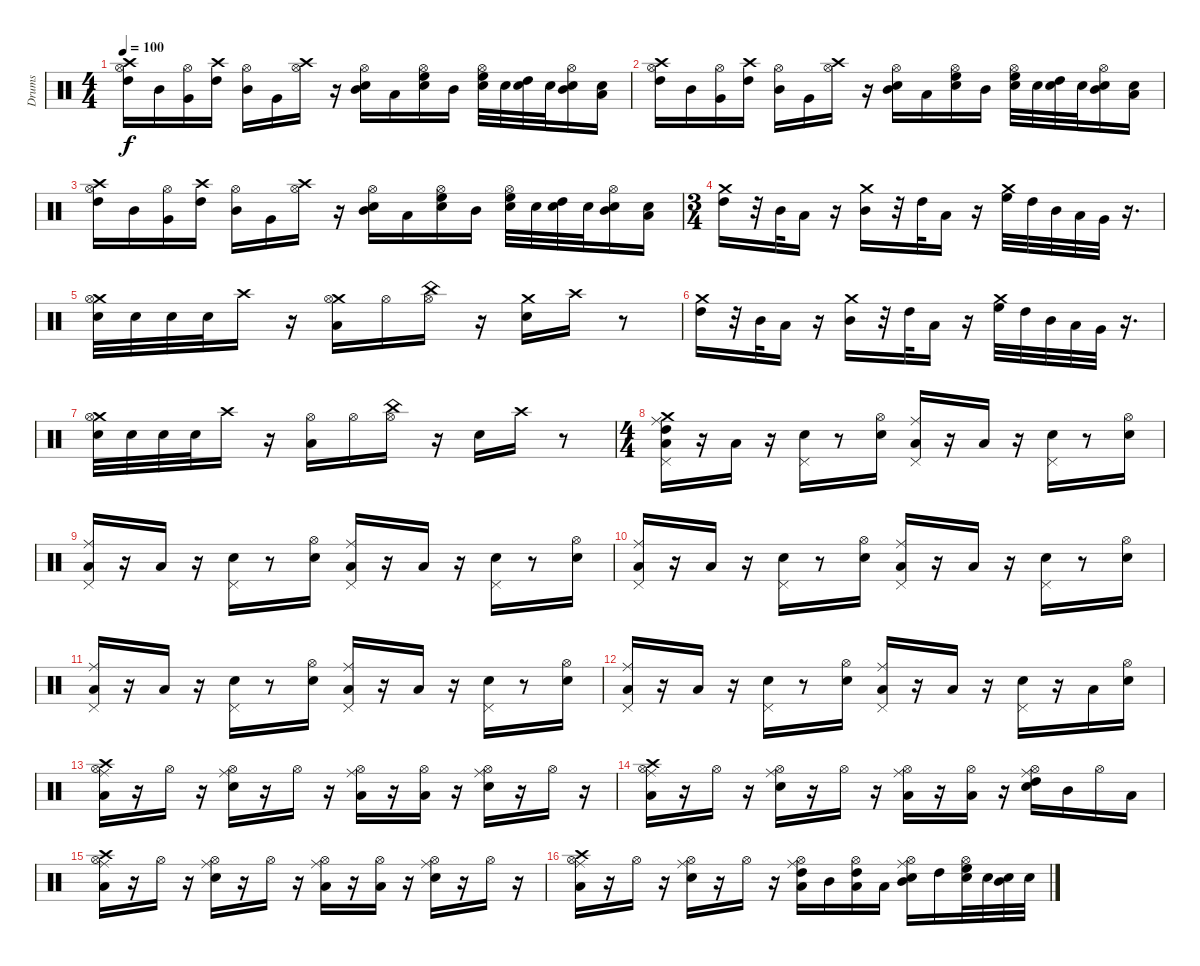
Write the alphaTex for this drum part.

\track ("Drums" "Drums") {instrument percussion}
\staff {score}
\articulation defaults
\ts (4 4)
\tempo 100
\clef neutral
\ks c
("Hi-Hat (open)" "Crash high (hit)" "High Tom (hit)").16{dy f} "Mid Tom (hit)".16 ("Hi-Hat (open)" "Very Low Tom (hit)").16 ("Crash high (hit)" "High Tom (hit)").16 ("Hi-Hat (open)" "Mid Tom (hit)").16 "Very Low Tom (hit)".16 ("Hi-Hat (open)" "Crash high (hit)").16 r.16 ("Hi-Hat (open)" "Mid Tom (hit)" "Electric Snare (hit)").16 "Low Tom (hit)".16 ("Hi-Hat (open)" "High Floor Tom (hit)" "Electric Snare (hit)").16 "Mid Tom (hit)".16 ("Hi-Hat (open)" "High Floor Tom (hit)" "Electric Snare (hit)").32 "Electric Snare (hit)".32 ("High Tom (hit)" "Electric Snare (hit)").32 "Electric Snare (hit)".32 ("Hi-Hat (open)" "Mid Tom (hit)" "Electric Snare (hit)").16 ("Low Tom (hit)" "Electric Snare (hit)").16 |
("Hi-Hat (open)" "Crash high (hit)" "High Tom (hit)").16 "Mid Tom (hit)".16 ("Hi-Hat (open)" "Very Low Tom (hit)").16 ("Crash high (hit)" "High Tom (hit)").16 ("Hi-Hat (open)" "Mid Tom (hit)").16 "Very Low Tom (hit)".16 ("Hi-Hat (open)" "Crash high (hit)").16 r.16 ("Hi-Hat (open)" "Mid Tom (hit)" "Electric Snare (hit)").16 "Low Tom (hit)".16 ("Hi-Hat (open)" "High Floor Tom (hit)" "Electric Snare (hit)").16 "Mid Tom (hit)".16 ("Hi-Hat (open)" "High Floor Tom (hit)" "Electric Snare (hit)").32 "Electric Snare (hit)".32 ("High Tom (hit)" "Electric Snare (hit)").32 "Electric Snare (hit)".32 ("Hi-Hat (open)" "Mid Tom (hit)" "Electric Snare (hit)").16 ("Low Tom (hit)" "Electric Snare (hit)").16 |
("Hi-Hat (open)" "Crash high (hit)" "High Tom (hit)").16 "Mid Tom (hit)".16 ("Hi-Hat (open)" "Very Low Tom (hit)").16 ("Crash high (hit)" "High Tom (hit)").16 ("Hi-Hat (open)" "Mid Tom (hit)").16 "Very Low Tom (hit)".16 ("Hi-Hat (open)" "Crash high (hit)").16 r.16 ("Hi-Hat (open)" "Mid Tom (hit)" "Electric Snare (hit)").16 "Low Tom (hit)".16 ("Hi-Hat (open)" "High Floor Tom (hit)" "Electric Snare (hit)").16 "Mid Tom (hit)".16 ("Hi-Hat (open)" "High Floor Tom (hit)" "Electric Snare (hit)").32 "Electric Snare (hit)".32 ("High Tom (hit)" "Electric Snare (hit)").32 "Electric Snare (hit)".32 ("Hi-Hat (open)" "Mid Tom (hit)" "Electric Snare (hit)").16 ("Low Tom (hit)" "Electric Snare (hit)").16 |
\ts (3 4)
("High Tom (hit)" "Crash medium (hit)").16 r.32 "Mid Tom (hit)".32 "Low Tom (hit)".16 r.16 ("Crash medium (hit)" "Mid Tom (hit)").16 r.32 "High Tom (hit)".32 "Low Tom (hit)".16 r.16 ("Crash medium (hit)" "High Floor Tom (hit)").32 "High Tom (hit)".32 "Mid Tom (hit)".32 "Low Tom (hit)".32 "Very Low Tom (hit)".32 r.16{d} |
("Crash medium (hit)" "Electric Snare (hit)" "Hi-Hat (open)").32 "Electric Snare (hit)".32 "Electric Snare (hit)".32 "Electric Snare (hit)".32 "Crash high (hit)".16 r.16 ("Crash medium (hit)" "Low Tom (hit)" "Hi-Hat (open)").16 "Hi-Hat (open)".16 ("Hi-Hat (open)" "China (hit)").16 r.16 ("Crash medium (hit)" "Electric Snare (hit)").16 "Crash high (hit)".16 r.8 |
("Crash medium (hit)" "High Tom (hit)").16 r.32 "Mid Tom (hit)".32 "Low Tom (hit)".16 r.16 ("Crash medium (hit)" "Mid Tom (hit)").16 r.32 "High Tom (hit)".32 "Low Tom (hit)".16 r.16 ("Crash medium (hit)" "High Floor Tom (hit)").32 "High Tom (hit)".32 "Mid Tom (hit)".32 "Low Tom (hit)".32 "Very Low Tom (hit)".32 r.16{d} |
("Crash medium (hit)" "Electric Snare (hit)" "Hi-Hat (open)").32 "Electric Snare (hit)".32 "Electric Snare (hit)".32 "Electric Snare (hit)".32 "Crash high (hit)".16 r.16 ("Low Tom (hit)" "Hi-Hat (open)").16 "Hi-Hat (open)".16 ("Hi-Hat (open)" "China (hit)").16 r.16 "Electric Snare (hit)".16 "Crash high (hit)".16 r.8 |
\ts (4 4)
("Crash medium (hit)" "High Tom (hit)" "Pedal Hi-Hat (hit)" "Ride (middle)" "Low Floor Tom (hit)").16 r.16 "Low Floor Tom (hit)".16 r.16 ("Pedal Hi-Hat (hit)" "Electric Snare (hit)").16 r.8 ("Hi-Hat (open)" "Electric Snare (hit)").16 ("Pedal Hi-Hat (hit)" "Ride (middle)" "Low Floor Tom (hit)").16 r.16 "Low Floor Tom (hit)".16 r.16 ("Pedal Hi-Hat (hit)" "Electric Snare (hit)").16 r.8 ("Hi-Hat (open)" "Electric Snare (hit)").16 |
("Pedal Hi-Hat (hit)" "Ride (middle)" "Low Floor Tom (hit)").16 r.16 "Low Floor Tom (hit)".16 r.16 ("Pedal Hi-Hat (hit)" "Electric Snare (hit)").16 r.8 ("Hi-Hat (open)" "Electric Snare (hit)").16 ("Pedal Hi-Hat (hit)" "Ride (middle)" "Low Floor Tom (hit)").16 r.16 "Low Floor Tom (hit)".16 r.16 ("Pedal Hi-Hat (hit)" "Electric Snare (hit)").16 r.8 ("Hi-Hat (open)" "Electric Snare (hit)").16 |
("Pedal Hi-Hat (hit)" "Ride (middle)" "Low Floor Tom (hit)").16 r.16 "Low Floor Tom (hit)".16 r.16 ("Pedal Hi-Hat (hit)" "Electric Snare (hit)").16 r.8 ("Hi-Hat (open)" "Electric Snare (hit)").16 ("Pedal Hi-Hat (hit)" "Ride (middle)" "Low Floor Tom (hit)").16 r.16 "Low Floor Tom (hit)".16 r.16 ("Pedal Hi-Hat (hit)" "Electric Snare (hit)").16 r.8 ("Hi-Hat (open)" "Electric Snare (hit)").16 |
("Pedal Hi-Hat (hit)" "Ride (middle)" "Low Floor Tom (hit)").16 r.16 "Low Floor Tom (hit)".16 r.16 ("Pedal Hi-Hat (hit)" "Electric Snare (hit)").16 r.8 ("Hi-Hat (open)" "Electric Snare (hit)").16 ("Pedal Hi-Hat (hit)" "Ride (middle)" "Low Floor Tom (hit)").16 r.16 "Low Floor Tom (hit)".16 r.16 ("Pedal Hi-Hat (hit)" "Electric Snare (hit)").16 r.8 ("Hi-Hat (open)" "Electric Snare (hit)").16 |
("Pedal Hi-Hat (hit)" "Ride (middle)" "Low Floor Tom (hit)").16 r.16 "Low Floor Tom (hit)".16 r.16 ("Pedal Hi-Hat (hit)" "Electric Snare (hit)").16 r.8 ("Hi-Hat (open)" "Electric Snare (hit)").16 ("Pedal Hi-Hat (hit)" "Ride (middle)" "Low Floor Tom (hit)").16 r.16 "Low Floor Tom (hit)".16 r.16 ("Pedal Hi-Hat (hit)" "Electric Snare (hit)").16 r.16 "Low Floor Tom (hit)".16 ("Hi-Hat (open)" "Electric Snare (hit)").16 |
("Low Floor Tom (hit)" "Crash high (hit)" "Hi-Hat (open)" "Ride (middle)").16 r.16 "Hi-Hat (open)".16 r.16 ("Electric Snare (hit)" "Hi-Hat (open)" "Ride (middle)").16 r.16 "Hi-Hat (open)".16 r.16 ("Low Floor Tom (hit)" "Hi-Hat (open)" "Ride (middle)").16 r.16 ("Low Floor Tom (hit)" "Hi-Hat (open)").16 r.16 ("Hi-Hat (open)" "Ride (middle)" "Electric Snare (hit)").16 r.16 "Hi-Hat (open)".16 r.16 |
("Low Floor Tom (hit)" "Crash high (hit)" "Hi-Hat (open)" "Ride (middle)").16 r.16 "Hi-Hat (open)".16 r.16 ("Electric Snare (hit)" "Hi-Hat (open)" "Ride (middle)").16 r.16 "Hi-Hat (open)".16 r.16 ("Low Floor Tom (hit)" "Hi-Hat (open)" "Ride (middle)").16 r.16 ("Low Floor Tom (hit)" "Hi-Hat (open)").16 r.16 ("High Tom (hit)" "Hi-Hat (open)" "Ride (middle)" "Electric Snare (hit)").16 "Mid Tom (hit)".16 "Hi-Hat (open)".16 "Low Tom (hit)".16 |
("Low Floor Tom (hit)" "Crash high (hit)" "Hi-Hat (open)" "Ride (middle)").16 r.16 "Hi-Hat (open)".16 r.16 ("Electric Snare (hit)" "Hi-Hat (open)" "Ride (middle)").16 r.16 "Hi-Hat (open)".16 r.16 ("Low Floor Tom (hit)" "Hi-Hat (open)" "Ride (middle)").16 r.16 ("Low Floor Tom (hit)" "Hi-Hat (open)").16 r.16 ("Hi-Hat (open)" "Ride (middle)" "Electric Snare (hit)").16 r.16 "Hi-Hat (open)".16 r.16 |
("Low Floor Tom (hit)" "Crash high (hit)" "Hi-Hat (open)" "Ride (middle)").16 r.16 "Hi-Hat (open)".16 r.16 ("Electric Snare (hit)" "Hi-Hat (open)" "Ride (middle)").16 r.16 "Hi-Hat (open)".16 r.16 ("High Tom (hit)" "Low Floor Tom (hit)" "Hi-Hat (open)" "Ride (middle)").16 "Mid Tom (hit)".16 ("High Tom (hit)" "Low Floor Tom (hit)" "Hi-Hat (open)").16 "Low Tom (hit)".16 ("Mid Tom (hit)" "Hi-Hat (open)" "Ride (middle)" "Electric Snare (hit)").16 "High Tom (hit)".16 ("Electric Snare (hit)" "High Floor Tom (hit)" "Hi-Hat (open)").32 "Electric Snare (hit)".32 ("Electric Snare (hit)" "Mid Tom (hit)").32 "Electric Snare (hit)".32
